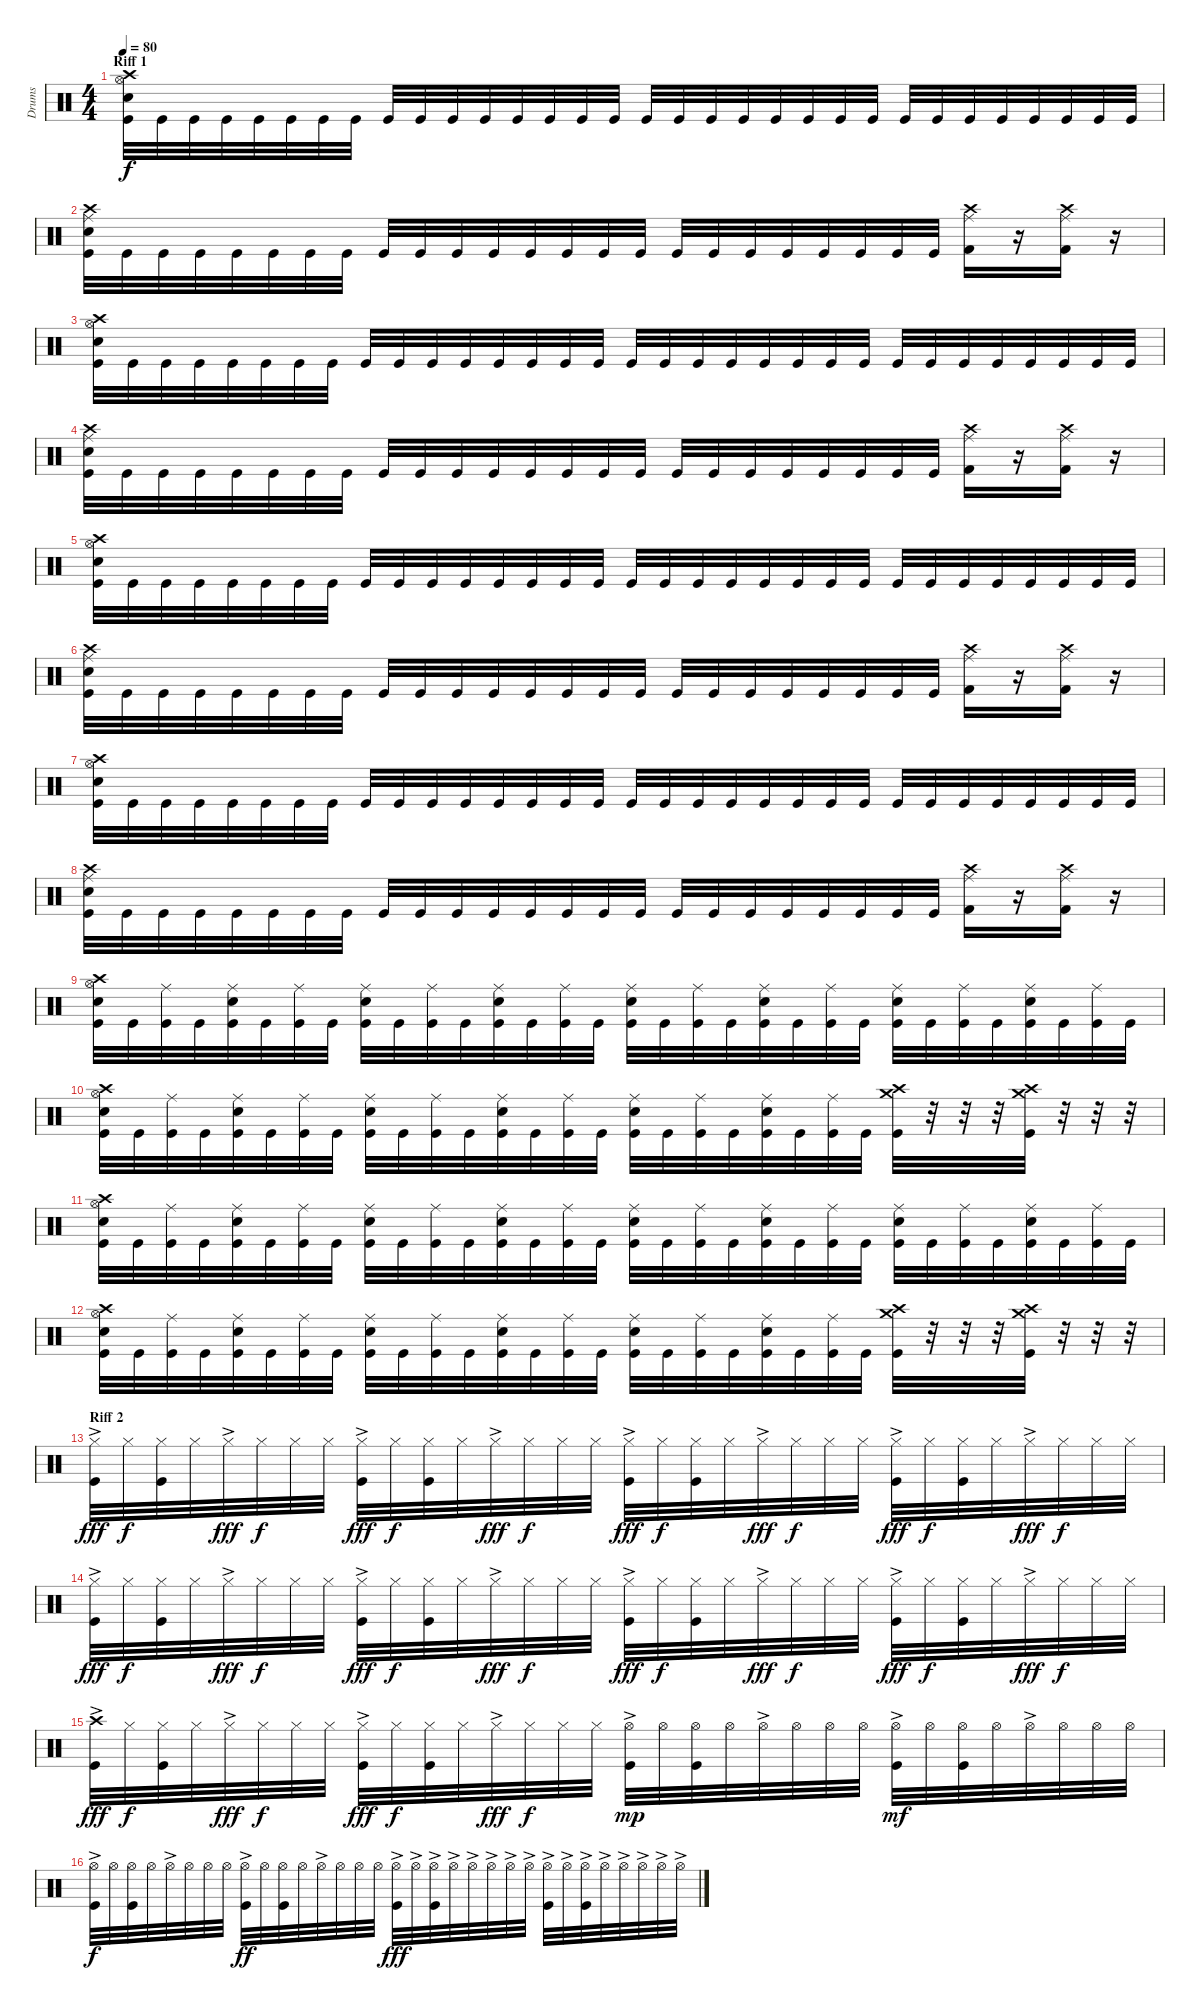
\track ("Drums" "Drums") {instrument percussion}
\staff {score}
\articulation defaults
\ts (4 4)
\section ("" "Riff 1")
\tempo 80
\clef neutral
\ks c
("Crash high (hit)" "Hi-Hat (open)" "Electric Snare (hit)" "Kick (hit)").32{dy f} "Kick (hit)".32 "Kick (hit)".32 "Kick (hit)".32 "Kick (hit)".32 "Kick (hit)".32 "Kick (hit)".32 "Kick (hit)".32 "Kick (hit)".32 "Kick (hit)".32 "Kick (hit)".32 "Kick (hit)".32 "Kick (hit)".32 "Kick (hit)".32 "Kick (hit)".32 "Kick (hit)".32 "Kick (hit)".32 "Kick (hit)".32 "Kick (hit)".32 "Kick (hit)".32 "Kick (hit)".32 "Kick (hit)".32 "Kick (hit)".32 "Kick (hit)".32 "Kick (hit)".32 "Kick (hit)".32 "Kick (hit)".32 "Kick (hit)".32 "Kick (hit)".32 "Kick (hit)".32 "Kick (hit)".32 "Kick (hit)".32 |
("Crash high (hit)" "Ride (middle)" "Electric Snare (hit)" "Kick (hit)").32 "Kick (hit)".32 "Kick (hit)".32 "Kick (hit)".32 "Kick (hit)".32 "Kick (hit)".32 "Kick (hit)".32 "Kick (hit)".32 "Kick (hit)".32 "Kick (hit)".32 "Kick (hit)".32 "Kick (hit)".32 "Kick (hit)".32 "Kick (hit)".32 "Kick (hit)".32 "Kick (hit)".32 "Kick (hit)".32 "Kick (hit)".32 "Kick (hit)".32 "Kick (hit)".32 "Kick (hit)".32 "Kick (hit)".32 "Kick (hit)".32 "Kick (hit)".32 ("Crash high (hit)" "Ride (middle)" "Kick (hit) 2").16 r.16 ("Crash high (hit)" "Ride (middle)" "Kick (hit) 2").16 r.16 |
("Crash high (hit)" "Hi-Hat (open)" "Electric Snare (hit)" "Kick (hit)").32 "Kick (hit)".32 "Kick (hit)".32 "Kick (hit)".32 "Kick (hit)".32 "Kick (hit)".32 "Kick (hit)".32 "Kick (hit)".32 "Kick (hit)".32 "Kick (hit)".32 "Kick (hit)".32 "Kick (hit)".32 "Kick (hit)".32 "Kick (hit)".32 "Kick (hit)".32 "Kick (hit)".32 "Kick (hit)".32 "Kick (hit)".32 "Kick (hit)".32 "Kick (hit)".32 "Kick (hit)".32 "Kick (hit)".32 "Kick (hit)".32 "Kick (hit)".32 "Kick (hit)".32 "Kick (hit)".32 "Kick (hit)".32 "Kick (hit)".32 "Kick (hit)".32 "Kick (hit)".32 "Kick (hit)".32 "Kick (hit)".32 |
("Crash high (hit)" "Ride (middle)" "Electric Snare (hit)" "Kick (hit)").32 "Kick (hit)".32 "Kick (hit)".32 "Kick (hit)".32 "Kick (hit)".32 "Kick (hit)".32 "Kick (hit)".32 "Kick (hit)".32 "Kick (hit)".32 "Kick (hit)".32 "Kick (hit)".32 "Kick (hit)".32 "Kick (hit)".32 "Kick (hit)".32 "Kick (hit)".32 "Kick (hit)".32 "Kick (hit)".32 "Kick (hit)".32 "Kick (hit)".32 "Kick (hit)".32 "Kick (hit)".32 "Kick (hit)".32 "Kick (hit)".32 "Kick (hit)".32 ("Crash high (hit)" "Ride (middle)" "Kick (hit) 2").16 r.16 ("Crash high (hit)" "Ride (middle)" "Kick (hit) 2").16 r.16 |
("Crash high (hit)" "Hi-Hat (open)" "Electric Snare (hit)" "Kick (hit)").32 "Kick (hit)".32 "Kick (hit)".32 "Kick (hit)".32 "Kick (hit)".32 "Kick (hit)".32 "Kick (hit)".32 "Kick (hit)".32 "Kick (hit)".32 "Kick (hit)".32 "Kick (hit)".32 "Kick (hit)".32 "Kick (hit)".32 "Kick (hit)".32 "Kick (hit)".32 "Kick (hit)".32 "Kick (hit)".32 "Kick (hit)".32 "Kick (hit)".32 "Kick (hit)".32 "Kick (hit)".32 "Kick (hit)".32 "Kick (hit)".32 "Kick (hit)".32 "Kick (hit)".32 "Kick (hit)".32 "Kick (hit)".32 "Kick (hit)".32 "Kick (hit)".32 "Kick (hit)".32 "Kick (hit)".32 "Kick (hit)".32 |
("Crash high (hit)" "Ride (middle)" "Electric Snare (hit)" "Kick (hit)").32 "Kick (hit)".32 "Kick (hit)".32 "Kick (hit)".32 "Kick (hit)".32 "Kick (hit)".32 "Kick (hit)".32 "Kick (hit)".32 "Kick (hit)".32 "Kick (hit)".32 "Kick (hit)".32 "Kick (hit)".32 "Kick (hit)".32 "Kick (hit)".32 "Kick (hit)".32 "Kick (hit)".32 "Kick (hit)".32 "Kick (hit)".32 "Kick (hit)".32 "Kick (hit)".32 "Kick (hit)".32 "Kick (hit)".32 "Kick (hit)".32 "Kick (hit)".32 ("Crash high (hit)" "Ride (middle)" "Kick (hit) 2").16 r.16 ("Crash high (hit)" "Ride (middle)" "Kick (hit) 2").16 r.16 |
("Crash high (hit)" "Hi-Hat (open)" "Electric Snare (hit)" "Kick (hit)").32 "Kick (hit)".32 "Kick (hit)".32 "Kick (hit)".32 "Kick (hit)".32 "Kick (hit)".32 "Kick (hit)".32 "Kick (hit)".32 "Kick (hit)".32 "Kick (hit)".32 "Kick (hit)".32 "Kick (hit)".32 "Kick (hit)".32 "Kick (hit)".32 "Kick (hit)".32 "Kick (hit)".32 "Kick (hit)".32 "Kick (hit)".32 "Kick (hit)".32 "Kick (hit)".32 "Kick (hit)".32 "Kick (hit)".32 "Kick (hit)".32 "Kick (hit)".32 "Kick (hit)".32 "Kick (hit)".32 "Kick (hit)".32 "Kick (hit)".32 "Kick (hit)".32 "Kick (hit)".32 "Kick (hit)".32 "Kick (hit)".32 |
("Crash high (hit)" "Ride (middle)" "Electric Snare (hit)" "Kick (hit)").32 "Kick (hit)".32 "Kick (hit)".32 "Kick (hit)".32 "Kick (hit)".32 "Kick (hit)".32 "Kick (hit)".32 "Kick (hit)".32 "Kick (hit)".32 "Kick (hit)".32 "Kick (hit)".32 "Kick (hit)".32 "Kick (hit)".32 "Kick (hit)".32 "Kick (hit)".32 "Kick (hit)".32 "Kick (hit)".32 "Kick (hit)".32 "Kick (hit)".32 "Kick (hit)".32 "Kick (hit)".32 "Kick (hit)".32 "Kick (hit)".32 "Kick (hit)".32 ("Crash high (hit)" "Ride (middle)" "Kick (hit) 2").16 r.16 ("Crash high (hit)" "Ride (middle)" "Kick (hit) 2").16 r.16 |
("Crash high (hit)" "Hi-Hat (open)" "Electric Snare (hit)" "Kick (hit)").32 "Kick (hit)".32 ("Ride (middle)" "Kick (hit)").32 "Kick (hit)".32 ("Ride (middle)" "Electric Snare (hit)" "Kick (hit)").32 "Kick (hit)".32 ("Ride (middle)" "Kick (hit)").32 "Kick (hit)".32 ("Ride (middle)" "Electric Snare (hit)" "Kick (hit)").32 "Kick (hit)".32 ("Ride (middle)" "Kick (hit)").32 "Kick (hit)".32 ("Ride (middle)" "Electric Snare (hit)" "Kick (hit)").32 "Kick (hit)".32 ("Ride (middle)" "Kick (hit)").32 "Kick (hit)".32 ("Ride (middle)" "Electric Snare (hit)" "Kick (hit)").32 "Kick (hit)".32 ("Ride (middle)" "Kick (hit)").32 "Kick (hit)".32 ("Ride (middle)" "Electric Snare (hit)" "Kick (hit)").32 "Kick (hit)".32 ("Ride (middle)" "Kick (hit)").32 "Kick (hit)".32 ("Ride (middle)" "Electric Snare (hit)" "Kick (hit)").32 "Kick (hit)".32 ("Ride (middle)" "Kick (hit)").32 "Kick (hit)".32 ("Ride (middle)" "Electric Snare (hit)" "Kick (hit)").32 "Kick (hit)".32 ("Ride (middle)" "Kick (hit)").32 "Kick (hit)".32 |
("Crash high (hit)" "Hi-Hat (open)" "Electric Snare (hit)" "Kick (hit)").32 "Kick (hit)".32 ("Ride (middle)" "Kick (hit)").32 "Kick (hit)".32 ("Ride (middle)" "Electric Snare (hit)" "Kick (hit)").32 "Kick (hit)".32 ("Ride (middle)" "Kick (hit)").32 "Kick (hit)".32 ("Ride (middle)" "Electric Snare (hit)" "Kick (hit)").32 "Kick (hit)".32 ("Ride (middle)" "Kick (hit)").32 "Kick (hit)".32 ("Ride (middle)" "Electric Snare (hit)" "Kick (hit)").32 "Kick (hit)".32 ("Ride (middle)" "Kick (hit)").32 "Kick (hit)".32 ("Ride (middle)" "Electric Snare (hit)" "Kick (hit)").32 "Kick (hit)".32 ("Ride (middle)" "Kick (hit)").32 "Kick (hit)".32 ("Ride (middle)" "Electric Snare (hit)" "Kick (hit)").32 "Kick (hit)".32 ("Ride (middle)" "Kick (hit)").32 "Kick (hit)".32 ("Crash high (hit)" "Crash medium (hit)" "Kick (hit)").32 r.32 r.32 r.32 ("Crash high (hit)" "Crash medium (hit)" "Kick (hit)").32 r.32 r.32 r.32 |
("Crash high (hit)" "Hi-Hat (open)" "Electric Snare (hit)" "Kick (hit)").32 "Kick (hit)".32 ("Ride (middle)" "Kick (hit)").32 "Kick (hit)".32 ("Ride (middle)" "Electric Snare (hit)" "Kick (hit)").32 "Kick (hit)".32 ("Ride (middle)" "Kick (hit)").32 "Kick (hit)".32 ("Ride (middle)" "Electric Snare (hit)" "Kick (hit)").32 "Kick (hit)".32 ("Ride (middle)" "Kick (hit)").32 "Kick (hit)".32 ("Ride (middle)" "Electric Snare (hit)" "Kick (hit)").32 "Kick (hit)".32 ("Ride (middle)" "Kick (hit)").32 "Kick (hit)".32 ("Ride (middle)" "Electric Snare (hit)" "Kick (hit)").32 "Kick (hit)".32 ("Ride (middle)" "Kick (hit)").32 "Kick (hit)".32 ("Ride (middle)" "Electric Snare (hit)" "Kick (hit)").32 "Kick (hit)".32 ("Ride (middle)" "Kick (hit)").32 "Kick (hit)".32 ("Ride (middle)" "Electric Snare (hit)" "Kick (hit)").32 "Kick (hit)".32 ("Ride (middle)" "Kick (hit)").32 "Kick (hit)".32 ("Ride (middle)" "Electric Snare (hit)" "Kick (hit)").32 "Kick (hit)".32 ("Ride (middle)" "Kick (hit)").32 "Kick (hit)".32 |
("Crash high (hit)" "Hi-Hat (open)" "Electric Snare (hit)" "Kick (hit)").32 "Kick (hit)".32 ("Ride (middle)" "Kick (hit)").32 "Kick (hit)".32 ("Ride (middle)" "Electric Snare (hit)" "Kick (hit)").32 "Kick (hit)".32 ("Ride (middle)" "Kick (hit)").32 "Kick (hit)".32 ("Ride (middle)" "Electric Snare (hit)" "Kick (hit)").32 "Kick (hit)".32 ("Ride (middle)" "Kick (hit)").32 "Kick (hit)".32 ("Ride (middle)" "Electric Snare (hit)" "Kick (hit)").32 "Kick (hit)".32 ("Ride (middle)" "Kick (hit)").32 "Kick (hit)".32 ("Ride (middle)" "Electric Snare (hit)" "Kick (hit)").32 "Kick (hit)".32 ("Ride (middle)" "Kick (hit)").32 "Kick (hit)".32 ("Ride (middle)" "Electric Snare (hit)" "Kick (hit)").32 "Kick (hit)".32 ("Ride (middle)" "Kick (hit)").32 "Kick (hit)".32 ("Crash high (hit)" "Crash medium (hit)" "Kick (hit)").32 r.32 r.32 r.32 ("Crash high (hit)" "Crash medium (hit)" "Kick (hit)").32 r.32 r.32 r.32 |
\section ("" "Riff 2")
("Hi-Hat (closed)"{ac} "Kick (hit)").32{dy fff} "Hi-Hat (closed)".32{dy f} ("Hi-Hat (closed)" "Kick (hit)").32 "Hi-Hat (closed)".32 "Hi-Hat (closed)"{ac}.32{dy fff} "Hi-Hat (closed)".32{dy f} "Hi-Hat (closed)".32 "Hi-Hat (closed)".32 ("Hi-Hat (closed)"{ac} "Kick (hit)").32{dy fff} "Hi-Hat (closed)".32{dy f} ("Hi-Hat (closed)" "Kick (hit)").32 "Hi-Hat (closed)".32 "Hi-Hat (closed)"{ac}.32{dy fff} "Hi-Hat (closed)".32{dy f} "Hi-Hat (closed)".32 "Hi-Hat (closed)".32 ("Hi-Hat (closed)"{ac} "Kick (hit)").32{dy fff} "Hi-Hat (closed)".32{dy f} ("Hi-Hat (closed)" "Kick (hit)").32 "Hi-Hat (closed)".32 "Hi-Hat (closed)"{ac}.32{dy fff} "Hi-Hat (closed)".32{dy f} "Hi-Hat (closed)".32 "Hi-Hat (closed)".32 ("Hi-Hat (closed)"{ac} "Kick (hit)").32{dy fff} "Hi-Hat (closed)".32{dy f} ("Hi-Hat (closed)" "Kick (hit)").32 "Hi-Hat (closed)".32 "Hi-Hat (closed)"{ac}.32{dy fff} "Hi-Hat (closed)".32{dy f} "Hi-Hat (closed)".32 "Hi-Hat (closed)".32 |
("Hi-Hat (closed)"{ac} "Kick (hit)").32{dy fff} "Hi-Hat (closed)".32{dy f} ("Hi-Hat (closed)" "Kick (hit)").32 "Hi-Hat (closed)".32 "Hi-Hat (closed)"{ac}.32{dy fff} "Hi-Hat (closed)".32{dy f} "Hi-Hat (closed)".32 "Hi-Hat (closed)".32 ("Hi-Hat (closed)"{ac} "Kick (hit)").32{dy fff} "Hi-Hat (closed)".32{dy f} ("Hi-Hat (closed)" "Kick (hit)").32 "Hi-Hat (closed)".32 "Hi-Hat (closed)"{ac}.32{dy fff} "Hi-Hat (closed)".32{dy f} "Hi-Hat (closed)".32 "Hi-Hat (closed)".32 ("Hi-Hat (closed)"{ac} "Kick (hit)").32{dy fff} "Hi-Hat (closed)".32{dy f} ("Hi-Hat (closed)" "Kick (hit)").32 "Hi-Hat (closed)".32 "Hi-Hat (closed)"{ac}.32{dy fff} "Hi-Hat (closed)".32{dy f} "Hi-Hat (closed)".32 "Hi-Hat (closed)".32 ("Hi-Hat (closed)"{ac} "Kick (hit)").32{dy fff} "Hi-Hat (closed)".32{dy f} ("Hi-Hat (closed)" "Kick (hit)").32 "Hi-Hat (closed)".32 "Hi-Hat (closed)"{ac}.32{dy fff} "Hi-Hat (closed)".32{dy f} "Hi-Hat (closed)".32 "Hi-Hat (closed)".32 |
("Crash high (hit)"{ac} "Kick (hit)").32{dy fff} "Hi-Hat (closed)".32{dy f} ("Hi-Hat (closed)" "Kick (hit)").32 "Hi-Hat (closed)".32 "Hi-Hat (closed)"{ac}.32{dy fff} "Hi-Hat (closed)".32{dy f} "Hi-Hat (closed)".32 "Hi-Hat (closed)".32 ("Hi-Hat (closed)"{ac} "Kick (hit)").32{dy fff} "Hi-Hat (closed)".32{dy f} ("Hi-Hat (closed)" "Kick (hit)").32 "Hi-Hat (closed)".32 "Hi-Hat (closed)"{ac}.32{dy fff} "Hi-Hat (closed)".32{dy f} "Hi-Hat (closed)".32 "Hi-Hat (closed)".32 ("Hi-Hat (open)"{ac} "Kick (hit)").32{dy mp} "Hi-Hat (open)".32 ("Hi-Hat (open)" "Kick (hit)").32 "Hi-Hat (open)".32 "Hi-Hat (open)"{ac}.32 "Hi-Hat (open)".32 "Hi-Hat (open)".32 "Hi-Hat (open)".32 ("Hi-Hat (open)"{ac} "Kick (hit)").32{dy mf} "Hi-Hat (open)".32 ("Hi-Hat (open)" "Kick (hit)").32 "Hi-Hat (open)".32 "Hi-Hat (open)"{ac}.32 "Hi-Hat (open)".32 "Hi-Hat (open)".32 "Hi-Hat (open)".32 |
("Hi-Hat (open)"{ac} "Kick (hit)").32{dy f} "Hi-Hat (open)".32 ("Hi-Hat (open)" "Kick (hit)").32 "Hi-Hat (open)".32 "Hi-Hat (open)"{ac}.32 "Hi-Hat (open)".32 "Hi-Hat (open)".32 "Hi-Hat (open)".32 ("Hi-Hat (open)"{ac} "Kick (hit)").32{dy ff} "Hi-Hat (open)".32 ("Hi-Hat (open)" "Kick (hit)").32 "Hi-Hat (open)".32 "Hi-Hat (open)"{ac}.32 "Hi-Hat (open)".32 "Hi-Hat (open)".32 "Hi-Hat (open)".32 ("Hi-Hat (open)"{ac} "Kick (hit)").32{dy fff} "Hi-Hat (open)"{ac}.32 ("Hi-Hat (open)"{ac} "Kick (hit)").32 "Hi-Hat (open)"{ac}.32 "Hi-Hat (open)"{ac}.32 "Hi-Hat (open)"{ac}.32 "Hi-Hat (open)"{ac}.32 "Hi-Hat (open)"{ac}.32 ("Hi-Hat (open)"{ac} "Kick (hit)").32 "Hi-Hat (open)"{ac}.32 ("Hi-Hat (open)"{ac} "Kick (hit)").32 "Hi-Hat (open)"{ac}.32 "Hi-Hat (open)"{ac}.32 "Hi-Hat (open)"{ac}.32 "Hi-Hat (open)"{ac}.32 "Hi-Hat (open)"{ac}.32
